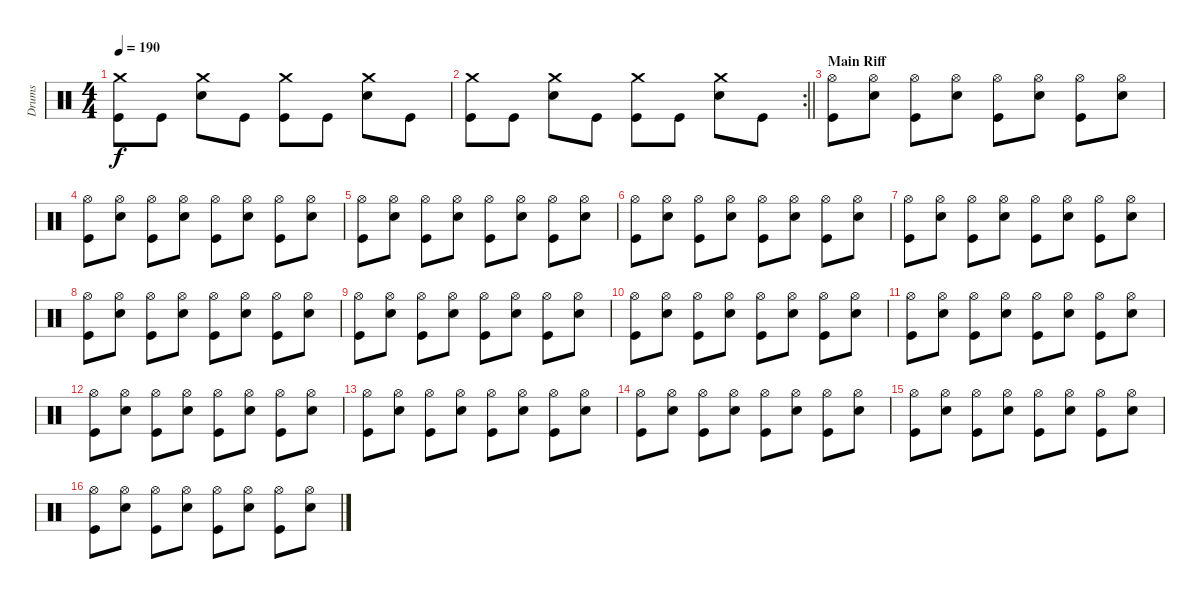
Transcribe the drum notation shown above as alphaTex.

\track ("Drums" "Drums") {instrument percussion}
\staff {score}
\articulation defaults
\ts (4 4)
\tempo 190
\clef neutral
\ks c
("Crash medium (hit)" "Kick (hit)").8{dy f} "Kick (hit)".8 ("Crash medium (hit)" "Snare (hit) 2").8 "Kick (hit)".8 ("Crash medium (hit)" "Kick (hit)").8 "Kick (hit)".8 ("Crash medium (hit)" "Snare (hit) 2").8 "Kick (hit)".8 |
\rc 2
\barLineRight lightlight
("Crash medium (hit)" "Kick (hit)").8 "Kick (hit)".8 ("Crash medium (hit)" "Snare (hit) 2").8 "Kick (hit)".8 ("Crash medium (hit)" "Kick (hit)").8 "Kick (hit)".8 ("Crash medium (hit)" "Snare (hit) 2").8 "Kick (hit)".8 |
\section ("" "Main Riff")
("Hi-Hat (open)" "Kick (hit)").8 ("Hi-Hat (open)" "Snare (hit) 2").8 ("Hi-Hat (open)" "Kick (hit)").8 ("Hi-Hat (open)" "Snare (hit) 2").8 ("Hi-Hat (open)" "Kick (hit)").8 ("Hi-Hat (open)" "Snare (hit) 2").8 ("Hi-Hat (open)" "Kick (hit)").8 ("Hi-Hat (open)" "Snare (hit) 2").8 |
("Hi-Hat (open)" "Kick (hit)").8 ("Hi-Hat (open)" "Snare (hit) 2").8 ("Hi-Hat (open)" "Kick (hit)").8 ("Hi-Hat (open)" "Snare (hit) 2").8 ("Hi-Hat (open)" "Kick (hit)").8 ("Hi-Hat (open)" "Snare (hit) 2").8 ("Hi-Hat (open)" "Kick (hit)").8 ("Hi-Hat (open)" "Snare (hit) 2").8 |
("Hi-Hat (open)" "Kick (hit)").8 ("Hi-Hat (open)" "Snare (hit) 2").8 ("Hi-Hat (open)" "Kick (hit)").8 ("Hi-Hat (open)" "Snare (hit) 2").8 ("Hi-Hat (open)" "Kick (hit)").8 ("Hi-Hat (open)" "Snare (hit) 2").8 ("Hi-Hat (open)" "Kick (hit)").8 ("Hi-Hat (open)" "Snare (hit) 2").8 |
("Hi-Hat (open)" "Kick (hit)").8 ("Hi-Hat (open)" "Snare (hit) 2").8 ("Hi-Hat (open)" "Kick (hit)").8 ("Hi-Hat (open)" "Snare (hit) 2").8 ("Hi-Hat (open)" "Kick (hit)").8 ("Hi-Hat (open)" "Snare (hit) 2").8 ("Hi-Hat (open)" "Kick (hit)").8 ("Hi-Hat (open)" "Snare (hit) 2").8 |
("Hi-Hat (open)" "Kick (hit)").8 ("Hi-Hat (open)" "Snare (hit) 2").8 ("Hi-Hat (open)" "Kick (hit)").8 ("Hi-Hat (open)" "Snare (hit) 2").8 ("Hi-Hat (open)" "Kick (hit)").8 ("Hi-Hat (open)" "Snare (hit) 2").8 ("Hi-Hat (open)" "Kick (hit)").8 ("Hi-Hat (open)" "Snare (hit) 2").8 |
("Hi-Hat (open)" "Kick (hit)").8 ("Hi-Hat (open)" "Snare (hit) 2").8 ("Hi-Hat (open)" "Kick (hit)").8 ("Hi-Hat (open)" "Snare (hit) 2").8 ("Hi-Hat (open)" "Kick (hit)").8 ("Hi-Hat (open)" "Snare (hit) 2").8 ("Hi-Hat (open)" "Kick (hit)").8 ("Hi-Hat (open)" "Snare (hit) 2").8 |
("Hi-Hat (open)" "Kick (hit)").8 ("Hi-Hat (open)" "Snare (hit) 2").8 ("Hi-Hat (open)" "Kick (hit)").8 ("Hi-Hat (open)" "Snare (hit) 2").8 ("Hi-Hat (open)" "Kick (hit)").8 ("Hi-Hat (open)" "Snare (hit) 2").8 ("Hi-Hat (open)" "Kick (hit)").8 ("Hi-Hat (open)" "Snare (hit) 2").8 |
("Hi-Hat (open)" "Kick (hit)").8 ("Hi-Hat (open)" "Snare (hit) 2").8 ("Hi-Hat (open)" "Kick (hit)").8 ("Hi-Hat (open)" "Snare (hit) 2").8 ("Hi-Hat (open)" "Kick (hit)").8 ("Hi-Hat (open)" "Snare (hit) 2").8 ("Hi-Hat (open)" "Kick (hit)").8 ("Hi-Hat (open)" "Snare (hit) 2").8 |
("Hi-Hat (open)" "Kick (hit)").8 ("Hi-Hat (open)" "Snare (hit) 2").8 ("Hi-Hat (open)" "Kick (hit)").8 ("Hi-Hat (open)" "Snare (hit) 2").8 ("Hi-Hat (open)" "Kick (hit)").8 ("Hi-Hat (open)" "Snare (hit) 2").8 ("Hi-Hat (open)" "Kick (hit)").8 ("Hi-Hat (open)" "Snare (hit) 2").8 |
("Hi-Hat (open)" "Kick (hit)").8 ("Hi-Hat (open)" "Snare (hit) 2").8 ("Hi-Hat (open)" "Kick (hit)").8 ("Hi-Hat (open)" "Snare (hit) 2").8 ("Hi-Hat (open)" "Kick (hit)").8 ("Hi-Hat (open)" "Snare (hit) 2").8 ("Hi-Hat (open)" "Kick (hit)").8 ("Hi-Hat (open)" "Snare (hit) 2").8 |
("Hi-Hat (open)" "Kick (hit)").8 ("Hi-Hat (open)" "Snare (hit) 2").8 ("Hi-Hat (open)" "Kick (hit)").8 ("Hi-Hat (open)" "Snare (hit) 2").8 ("Hi-Hat (open)" "Kick (hit)").8 ("Hi-Hat (open)" "Snare (hit) 2").8 ("Hi-Hat (open)" "Kick (hit)").8 ("Hi-Hat (open)" "Snare (hit) 2").8 |
("Hi-Hat (open)" "Kick (hit)").8 ("Hi-Hat (open)" "Snare (hit) 2").8 ("Hi-Hat (open)" "Kick (hit)").8 ("Hi-Hat (open)" "Snare (hit) 2").8 ("Hi-Hat (open)" "Kick (hit)").8 ("Hi-Hat (open)" "Snare (hit) 2").8 ("Hi-Hat (open)" "Kick (hit)").8 ("Hi-Hat (open)" "Snare (hit) 2").8 |
("Hi-Hat (open)" "Kick (hit)").8 ("Hi-Hat (open)" "Snare (hit) 2").8 ("Hi-Hat (open)" "Kick (hit)").8 ("Hi-Hat (open)" "Snare (hit) 2").8 ("Hi-Hat (open)" "Kick (hit)").8 ("Hi-Hat (open)" "Snare (hit) 2").8 ("Hi-Hat (open)" "Kick (hit)").8 ("Hi-Hat (open)" "Snare (hit) 2").8 |
("Hi-Hat (open)" "Kick (hit)").8 ("Hi-Hat (open)" "Snare (hit) 2").8 ("Hi-Hat (open)" "Kick (hit)").8 ("Hi-Hat (open)" "Snare (hit) 2").8 ("Hi-Hat (open)" "Kick (hit)").8 ("Hi-Hat (open)" "Snare (hit) 2").8 ("Hi-Hat (open)" "Kick (hit)").8 ("Hi-Hat (open)" "Snare (hit) 2").8
